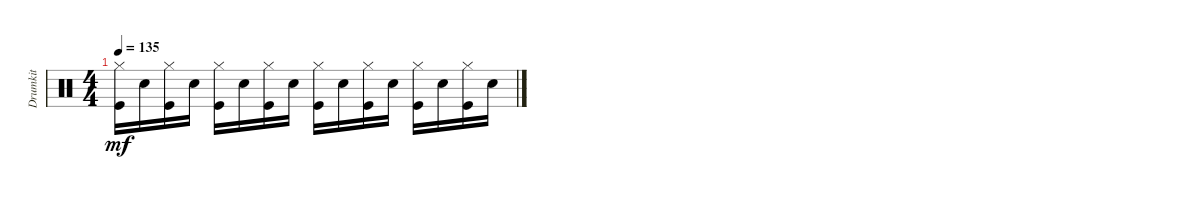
\track ("Drumkit" "Drumkit") {instrument percussion}
\staff {score}
\articulation defaults
\ts (4 4)
\tempo 135
\clef neutral
\ks c
("Kick (hit)" "Hi-Hat (closed)").16{dy mf} "Snare (hit) 2".16 ("Kick (hit)" "Hi-Hat (closed)").16 "Snare (hit) 2".16 ("Kick (hit)" "Hi-Hat (closed)").16 "Snare (hit) 2".16 ("Kick (hit)" "Hi-Hat (closed)").16 "Snare (hit) 2".16 ("Kick (hit)" "Hi-Hat (closed)").16 "Snare (hit) 2".16 ("Kick (hit)" "Hi-Hat (closed)").16 "Snare (hit) 2".16 ("Kick (hit)" "Hi-Hat (closed)").16 "Snare (hit) 2".16 ("Kick (hit)" "Hi-Hat (closed)").16 "Snare (hit) 2".16
